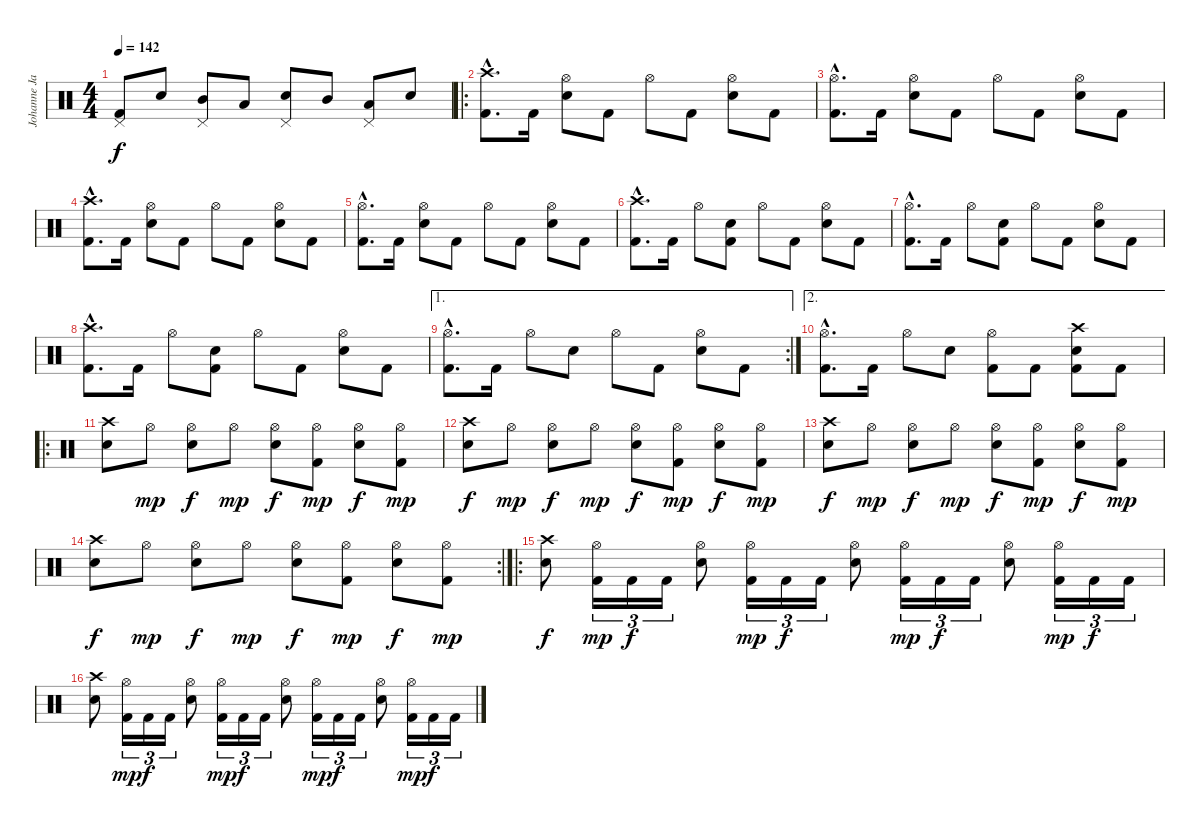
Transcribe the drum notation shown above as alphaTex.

\track ("Johanne James" "Johanne Ja") {instrument percussion}
\staff {score}
\articulation defaults
\ts (4 4)
\tempo 142
\clef neutral
\ks c
("Pedal Hi-Hat (hit)" "Kick (hit) 2").8{dy f} "Snare (hit) 2".8 ("Pedal Hi-Hat (hit)" "Mid Tom (hit)").8 "Low Tom (hit)".8 ("Pedal Hi-Hat (hit)" "Snare (hit) 2").8 "Mid Tom (hit)".8 ("Pedal Hi-Hat (hit)" "Low Tom (hit)").8 "Snare (hit) 2".8 |
\ro
("Crash high (hit)"{hac} "Kick (hit) 2"{hac}).8{d} "Kick (hit) 2".16 ("Hi-Hat (open)" "Snare (hit) 2").8 "Kick (hit) 2".8 "Hi-Hat (open)".8 "Kick (hit) 2".8 ("Hi-Hat (open)" "Snare (hit) 2").8 "Kick (hit) 2".8 |
("Hi-Hat (open)"{hac} "Kick (hit) 2"{hac}).8{d} "Kick (hit) 2".16 ("Hi-Hat (open)" "Snare (hit) 2").8 "Kick (hit) 2".8 "Hi-Hat (open)".8 "Kick (hit) 2".8 ("Hi-Hat (open)" "Snare (hit) 2").8 "Kick (hit) 2".8 |
("Crash high (hit)"{hac} "Kick (hit) 2"{hac}).8{d} "Kick (hit) 2".16 ("Hi-Hat (open)" "Snare (hit) 2").8 "Kick (hit) 2".8 "Hi-Hat (open)".8 "Kick (hit) 2".8 ("Hi-Hat (open)" "Snare (hit) 2").8 "Kick (hit) 2".8 |
("Hi-Hat (open)"{hac} "Kick (hit) 2"{hac}).8{d} "Kick (hit) 2".16 ("Hi-Hat (open)" "Snare (hit) 2").8 "Kick (hit) 2".8 "Hi-Hat (open)".8 "Kick (hit) 2".8 ("Hi-Hat (open)" "Snare (hit) 2").8 "Kick (hit) 2".8 |
("Crash high (hit)"{hac} "Kick (hit) 2"{hac}).8{d} "Kick (hit) 2".16 "Hi-Hat (open)".8 ("Snare (hit) 2" "Kick (hit) 2").8 "Hi-Hat (open)".8 "Kick (hit) 2".8 ("Hi-Hat (open)" "Snare (hit) 2").8 "Kick (hit) 2".8 |
("Hi-Hat (open)"{hac} "Kick (hit) 2"{hac}).8{d} "Kick (hit) 2".16 "Hi-Hat (open)".8 ("Snare (hit) 2" "Kick (hit) 2").8 "Hi-Hat (open)".8 "Kick (hit) 2".8 ("Hi-Hat (open)" "Snare (hit) 2").8 "Kick (hit) 2".8 |
("Crash high (hit)"{hac} "Kick (hit) 2"{hac}).8{d} "Kick (hit) 2".16 "Hi-Hat (open)".8 ("Snare (hit) 2" "Kick (hit) 2").8 "Hi-Hat (open)".8 "Kick (hit) 2".8 ("Hi-Hat (open)" "Snare (hit) 2").8 "Kick (hit) 2".8 |
\ae 1
\rc 2
("Hi-Hat (open)"{hac} "Kick (hit) 2"{hac}).8{d} "Kick (hit) 2".16 "Hi-Hat (open)".8 "Snare (hit) 2".8 "Hi-Hat (open)".8 "Kick (hit) 2".8 ("Hi-Hat (open)" "Snare (hit) 2").8 "Kick (hit) 2".8 |
\ae 2
("Hi-Hat (open)"{hac} "Kick (hit) 2"{hac}).8{d} "Kick (hit) 2".16 "Hi-Hat (open)".8 "Snare (hit) 2".8 ("Hi-Hat (open)" "Kick (hit) 2").8 "Kick (hit) 2".8 ("Crash high (hit)" "Snare (hit) 2" "Kick (hit) 2").8 "Kick (hit) 2".8 |
\ro
("Crash high (hit)" "Snare (hit) 2").8 "Hi-Hat (open)".8{dy mp} ("Hi-Hat (open)" "Snare (hit) 2").8{dy f} "Hi-Hat (open)".8{dy mp} ("Hi-Hat (open)" "Snare (hit) 2").8{dy f} ("Hi-Hat (open)" "Kick (hit) 2").8{dy mp} ("Hi-Hat (open)" "Snare (hit) 2").8{dy f} ("Hi-Hat (open)" "Kick (hit) 2").8{dy mp} |
("Crash high (hit)" "Snare (hit) 2").8{dy f} "Hi-Hat (open)".8{dy mp} ("Hi-Hat (open)" "Snare (hit) 2").8{dy f} "Hi-Hat (open)".8{dy mp} ("Hi-Hat (open)" "Snare (hit) 2").8{dy f} ("Hi-Hat (open)" "Kick (hit) 2").8{dy mp} ("Hi-Hat (open)" "Snare (hit) 2").8{dy f} ("Hi-Hat (open)" "Kick (hit) 2").8{dy mp} |
("Crash high (hit)" "Snare (hit) 2").8{dy f} "Hi-Hat (open)".8{dy mp} ("Hi-Hat (open)" "Snare (hit) 2").8{dy f} "Hi-Hat (open)".8{dy mp} ("Hi-Hat (open)" "Snare (hit) 2").8{dy f} ("Hi-Hat (open)" "Kick (hit) 2").8{dy mp} ("Hi-Hat (open)" "Snare (hit) 2").8{dy f} ("Hi-Hat (open)" "Kick (hit) 2").8{dy mp} |
\rc 2
("Crash high (hit)" "Snare (hit) 2").8{dy f} "Hi-Hat (open)".8{dy mp} ("Hi-Hat (open)" "Snare (hit) 2").8{dy f} "Hi-Hat (open)".8{dy mp} ("Hi-Hat (open)" "Snare (hit) 2").8{dy f} ("Hi-Hat (open)" "Kick (hit) 2").8{dy mp} ("Hi-Hat (open)" "Snare (hit) 2").8{dy f} ("Hi-Hat (open)" "Kick (hit) 2").8{dy mp} |
\ro
("Crash high (hit)" "Snare (hit) 2").8{dy f} ("Hi-Hat (open)" "Kick (hit) 2").16{tu (3 2) dy mp} "Kick (hit) 2".16{tu (3 2) dy f} "Kick (hit) 2".16{tu (3 2)} ("Hi-Hat (open)" "Snare (hit) 2").8 ("Hi-Hat (open)" "Kick (hit) 2").16{tu (3 2) dy mp} "Kick (hit) 2".16{tu (3 2) dy f} "Kick (hit) 2".16{tu (3 2)} ("Hi-Hat (open)" "Snare (hit) 2").8 ("Hi-Hat (open)" "Kick (hit) 2").16{tu (3 2) dy mp} "Kick (hit) 2".16{tu (3 2) dy f} "Kick (hit) 2".16{tu (3 2)} ("Hi-Hat (open)" "Snare (hit) 2").8 ("Hi-Hat (open)" "Kick (hit) 2").16{tu (3 2) dy mp} "Kick (hit) 2".16{tu (3 2) dy f} "Kick (hit) 2".16{tu (3 2)} |
("Crash high (hit)" "Snare (hit) 2").8 ("Hi-Hat (open)" "Kick (hit) 2").16{tu (3 2) dy mp} "Kick (hit) 2".16{tu (3 2) dy f} "Kick (hit) 2".16{tu (3 2)} ("Hi-Hat (open)" "Snare (hit) 2").8 ("Hi-Hat (open)" "Kick (hit) 2").16{tu (3 2) dy mp} "Kick (hit) 2".16{tu (3 2) dy f} "Kick (hit) 2".16{tu (3 2)} ("Hi-Hat (open)" "Snare (hit) 2").8 ("Hi-Hat (open)" "Kick (hit) 2").16{tu (3 2) dy mp} "Kick (hit) 2".16{tu (3 2) dy f} "Kick (hit) 2".16{tu (3 2)} ("Hi-Hat (open)" "Snare (hit) 2").8 ("Hi-Hat (open)" "Kick (hit) 2").16{tu (3 2) dy mp} "Kick (hit) 2".16{tu (3 2) dy f} "Kick (hit) 2".16{tu (3 2)}
